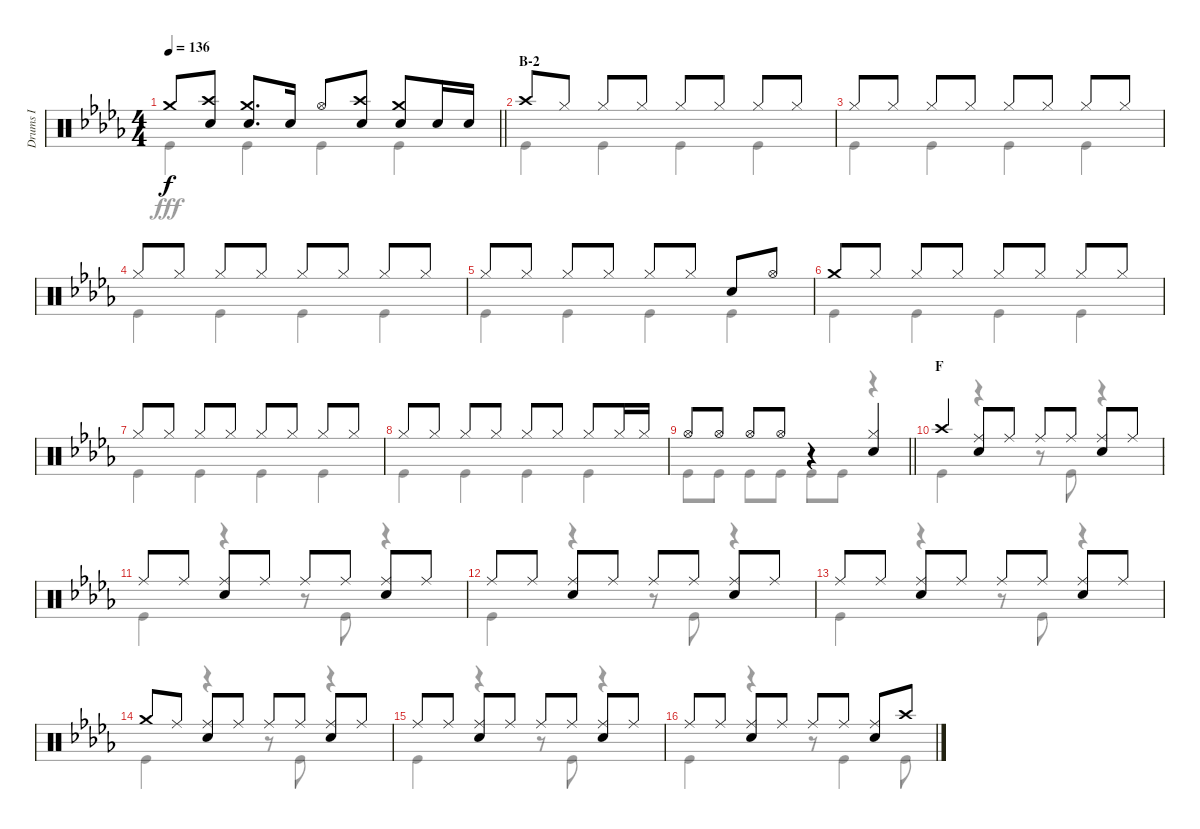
\track ("Drums I" "Drums I") {instrument percussion}
\staff {score}
\articulation defaults
\voice
\ts (4 4)
\tempo 136
\clef neutral
\barLineRight lightlight
\ks db "Crash medium (hit)".8{dy f}
("Crash high (hit)" "Snare (hit) 2").8 ("Crash medium (hit)" "Snare (hit) 2").8{d} "Snare (hit) 2".16 "Hi-Hat (open)".8 ("Crash high (hit)" "Snare (hit) 2").8 ("Crash medium (hit)" "Snare (hit) 2").8 "Snare (hit) 2".16 "Snare (hit) 2".16 |
\section ("" "B-2")
"Crash high (hit)".8 "Hi-Hat (closed)".8 "Hi-Hat (closed)".8 "Hi-Hat (closed)".8 "Hi-Hat (closed)".8 "Hi-Hat (closed)".8 "Hi-Hat (closed)".8 "Hi-Hat (closed)".8 |
"Hi-Hat (closed)".8 "Hi-Hat (closed)".8 "Hi-Hat (closed)".8 "Hi-Hat (closed)".8 "Hi-Hat (closed)".8 "Hi-Hat (closed)".8 "Hi-Hat (closed)".8 "Hi-Hat (closed)".8 |
"Hi-Hat (closed)".8 "Hi-Hat (closed)".8 "Hi-Hat (closed)".8 "Hi-Hat (closed)".8 "Hi-Hat (closed)".8 "Hi-Hat (closed)".8 "Hi-Hat (closed)".8 "Hi-Hat (closed)".8 |
"Hi-Hat (closed)".8 "Hi-Hat (closed)".8 "Hi-Hat (closed)".8 "Hi-Hat (closed)".8 "Hi-Hat (closed)".8 "Hi-Hat (closed)".8 "Snare (hit) 2".8 "Hi-Hat (open)".8 |
"Crash medium (hit)".8 "Hi-Hat (closed)".8 "Hi-Hat (closed)".8 "Hi-Hat (closed)".8 "Hi-Hat (closed)".8 "Hi-Hat (closed)".8 "Hi-Hat (closed)".8 "Hi-Hat (closed)".8 |
"Hi-Hat (closed)".8 "Hi-Hat (closed)".8 "Hi-Hat (closed)".8 "Hi-Hat (closed)".8 "Hi-Hat (closed)".8 "Hi-Hat (closed)".8 "Hi-Hat (closed)".8 "Hi-Hat (closed)".8 |
"Hi-Hat (closed)".8 "Hi-Hat (closed)".8 "Hi-Hat (closed)".8 "Hi-Hat (closed)".8 "Hi-Hat (closed)".8 "Hi-Hat (closed)".8 "Hi-Hat (closed)".8 "Hi-Hat (closed)".16 "Hi-Hat (closed)".16 |
\barLineRight lightlight "Hi-Hat (open)".8 "Hi-Hat (open)".8 "Hi-Hat (open)".8 "Hi-Hat (open)".8
r.4 ("Hi-Hat (closed)" "Snare (hit) 2").4 |
\section ("" "F")
"Crash high (hit)".4 ("Ride (middle)" "Snare (hit) 2").8 "Ride (middle)".8 "Ride (middle)".8 "Ride (middle)".8 ("Ride (middle)" "Snare (hit) 2").8 "Ride (middle)".8 |
"Ride (middle)".8 "Ride (middle)".8 ("Ride (middle)" "Snare (hit) 2").8 "Ride (middle)".8 "Ride (middle)".8 "Ride (middle)".8 ("Ride (middle)" "Snare (hit) 2").8 "Ride (middle)".8 |
"Ride (middle)".8 "Ride (middle)".8 ("Ride (middle)" "Snare (hit) 2").8 "Ride (middle)".8 "Ride (middle)".8 "Ride (middle)".8 ("Ride (middle)" "Snare (hit) 2").8 "Ride (middle)".8 |
"Ride (middle)".8 "Ride (middle)".8 ("Ride (middle)" "Snare (hit) 2").8 "Ride (middle)".8 "Ride (middle)".8 "Ride (middle)".8 ("Ride (middle)" "Snare (hit) 2").8 "Ride (middle)".8 |
"Crash medium (hit)".8 "Ride (middle)".8 ("Ride (middle)" "Snare (hit) 2").8 "Ride (middle)".8 "Ride (middle)".8 "Ride (middle)".8 ("Ride (middle)" "Snare (hit) 2").8 "Ride (middle)".8 |
"Ride (middle)".8 "Ride (middle)".8 ("Ride (middle)" "Snare (hit) 2").8 "Ride (middle)".8 "Ride (middle)".8 "Ride (middle)".8 ("Ride (middle)" "Snare (hit) 2").8 "Ride (middle)".8 |
"Ride (middle)".8 "Ride (middle)".8 ("Ride (middle)" "Snare (hit) 2").8 "Ride (middle)".8 "Ride (middle)".8 "Ride (middle)".8 ("Ride (middle)" "Snare (hit) 2").8 "Crash high (hit)".8
\voice
\clef neutral
\ottava regular
\simile none
\barLineRight lightlight
\ks db "Kick (hit)".4{dy fff} "Kick (hit)".4 "Kick (hit)".4 "Kick (hit)".4
|
"Kick (hit)".4 "Kick (hit)".4 "Kick (hit)".4 "Kick (hit)".4 |
"Kick (hit)".4 "Kick (hit)".4 "Kick (hit)".4 "Kick (hit)".4 |
"Kick (hit)".4 "Kick (hit)".4 "Kick (hit)".4 "Kick (hit)".4 |
"Kick (hit)".4 "Kick (hit)".4 "Kick (hit)".4 "Kick (hit)".4 |
"Kick (hit)".4 "Kick (hit)".4 "Kick (hit)".4 "Kick (hit)".4 |
"Kick (hit)".4 "Kick (hit)".4 "Kick (hit)".4 "Kick (hit)".4 |
"Kick (hit)".4 "Kick (hit)".4 "Kick (hit)".4 "Kick (hit)".4 |
\barLineRight lightlight "Kick (hit)".8 "Kick (hit)".8 "Kick (hit)".8 "Kick (hit)".8 "Kick (hit)".8 "Kick (hit)".8
r.4 |
"Kick (hit)".4 r.4 r.8 "Kick (hit)".8 r.4 |
"Kick (hit)".4 r.4 r.8 "Kick (hit)".8 r.4 |
"Kick (hit)".4 r.4 r.8 "Kick (hit)".8 r.4 |
"Kick (hit)".4 r.4 r.8 "Kick (hit)".8 r.4 |
"Kick (hit)".4 r.4 r.8 "Kick (hit)".8 r.4 |
"Kick (hit)".4 r.4 r.8 "Kick (hit)".8 r.4 |
"Kick (hit)".4 r.4 r.8 "Kick (hit)".4 "Kick (hit)".8
